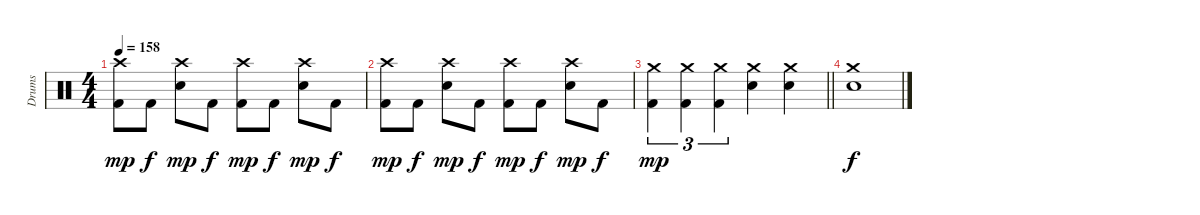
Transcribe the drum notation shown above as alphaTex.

\track ("Drums" "Drums") {instrument percussion}
\staff {score}
\articulation defaults
\ts (4 4)
\tempo 158
\clef neutral
\ks c
("Crash high (hit)" "Kick (hit) 2").8{dy mp} "Kick (hit) 2".8{dy f} ("Crash high (hit)" "Electric Snare (hit)").8{dy mp} "Kick (hit) 2".8{dy f} ("Crash high (hit)" "Kick (hit) 2").8{dy mp} "Kick (hit) 2".8{dy f} ("Crash high (hit)" "Electric Snare (hit)").8{dy mp} "Kick (hit) 2".8{dy f} |
("Crash high (hit)" "Kick (hit) 2").8{dy mp} "Kick (hit) 2".8{dy f} ("Crash high (hit)" "Electric Snare (hit)").8{dy mp} "Kick (hit) 2".8{dy f} ("Crash high (hit)" "Kick (hit) 2").8{dy mp} "Kick (hit) 2".8{dy f} ("Crash high (hit)" "Electric Snare (hit)").8{dy mp} "Kick (hit) 2".8{dy f} |
\barLineRight lightlight
("Crash medium (hit)" "Kick (hit) 2").4{tu (3 2) dy mp} ("Crash medium (hit)" "Kick (hit) 2").4{tu (3 2)} ("Crash medium (hit)" "Kick (hit) 2").4{tu (3 2)} ("Crash medium (hit)" "Electric Snare (hit)").4 ("Crash medium (hit)" "Electric Snare (hit)").4 |
("Crash medium (hit)" "Electric Snare (hit)").1{dy f}
